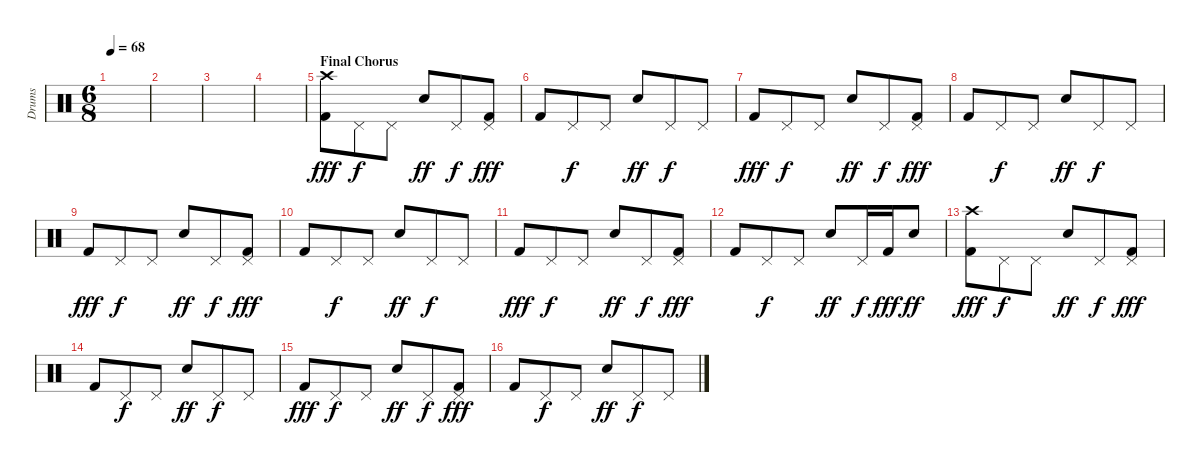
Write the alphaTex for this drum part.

\track ("Drums" "Drums") {instrument percussion}
\staff {score}
\articulation defaults
\ts (6 8)
\tempo 68
\clef neutral
\ks c
|
|
|
|
\section ("" "Final Chorus")
("Crash high (hit)" "Kick (hit) 2").8{dy fff} "Pedal Hi-Hat (hit)".8{dy f} "Pedal Hi-Hat (hit)".8 "Snare (hit) 2".8{dy ff} "Pedal Hi-Hat (hit)".8{dy f} ("Pedal Hi-Hat (hit)" "Kick (hit) 2").8{dy fff} |
"Kick (hit) 2".8 "Pedal Hi-Hat (hit)".8{dy f} "Pedal Hi-Hat (hit)".8 "Snare (hit) 2".8{dy ff} "Pedal Hi-Hat (hit)".8{dy f} "Pedal Hi-Hat (hit)".8 |
"Kick (hit) 2".8{dy fff} "Pedal Hi-Hat (hit)".8{dy f} "Pedal Hi-Hat (hit)".8 "Snare (hit) 2".8{dy ff} "Pedal Hi-Hat (hit)".8{dy f} ("Pedal Hi-Hat (hit)" "Kick (hit) 2").8{dy fff} |
"Kick (hit) 2".8 "Pedal Hi-Hat (hit)".8{dy f} "Pedal Hi-Hat (hit)".8 "Snare (hit) 2".8{dy ff} "Pedal Hi-Hat (hit)".8{dy f} "Pedal Hi-Hat (hit)".8 |
"Kick (hit) 2".8{dy fff} "Pedal Hi-Hat (hit)".8{dy f} "Pedal Hi-Hat (hit)".8 "Snare (hit) 2".8{dy ff} "Pedal Hi-Hat (hit)".8{dy f} ("Pedal Hi-Hat (hit)" "Kick (hit) 2").8{dy fff} |
"Kick (hit) 2".8 "Pedal Hi-Hat (hit)".8{dy f} "Pedal Hi-Hat (hit)".8 "Snare (hit) 2".8{dy ff} "Pedal Hi-Hat (hit)".8{dy f} "Pedal Hi-Hat (hit)".8 |
"Kick (hit) 2".8{dy fff} "Pedal Hi-Hat (hit)".8{dy f} "Pedal Hi-Hat (hit)".8 "Snare (hit) 2".8{dy ff} "Pedal Hi-Hat (hit)".8{dy f} ("Pedal Hi-Hat (hit)" "Kick (hit) 2").8{dy fff} |
"Kick (hit) 2".8 "Pedal Hi-Hat (hit)".8{dy f} "Pedal Hi-Hat (hit)".8 "Snare (hit) 2".8{dy ff} "Pedal Hi-Hat (hit)".16{dy f} "Kick (hit) 2".16{dy fff} "Snare (hit) 2".8{dy ff} |
("Crash high (hit)" "Kick (hit) 2").8{dy fff} "Pedal Hi-Hat (hit)".8{dy f} "Pedal Hi-Hat (hit)".8 "Snare (hit) 2".8{dy ff} "Pedal Hi-Hat (hit)".8{dy f} ("Pedal Hi-Hat (hit)" "Kick (hit) 2").8{dy fff} |
"Kick (hit) 2".8 "Pedal Hi-Hat (hit)".8{dy f} "Pedal Hi-Hat (hit)".8 "Snare (hit) 2".8{dy ff} "Pedal Hi-Hat (hit)".8{dy f} "Pedal Hi-Hat (hit)".8 |
"Kick (hit) 2".8{dy fff} "Pedal Hi-Hat (hit)".8{dy f} "Pedal Hi-Hat (hit)".8 "Snare (hit) 2".8{dy ff} "Pedal Hi-Hat (hit)".8{dy f} ("Pedal Hi-Hat (hit)" "Kick (hit) 2").8{dy fff} |
"Kick (hit) 2".8 "Pedal Hi-Hat (hit)".8{dy f} "Pedal Hi-Hat (hit)".8 "Snare (hit) 2".8{dy ff} "Pedal Hi-Hat (hit)".8{dy f} "Pedal Hi-Hat (hit)".8
